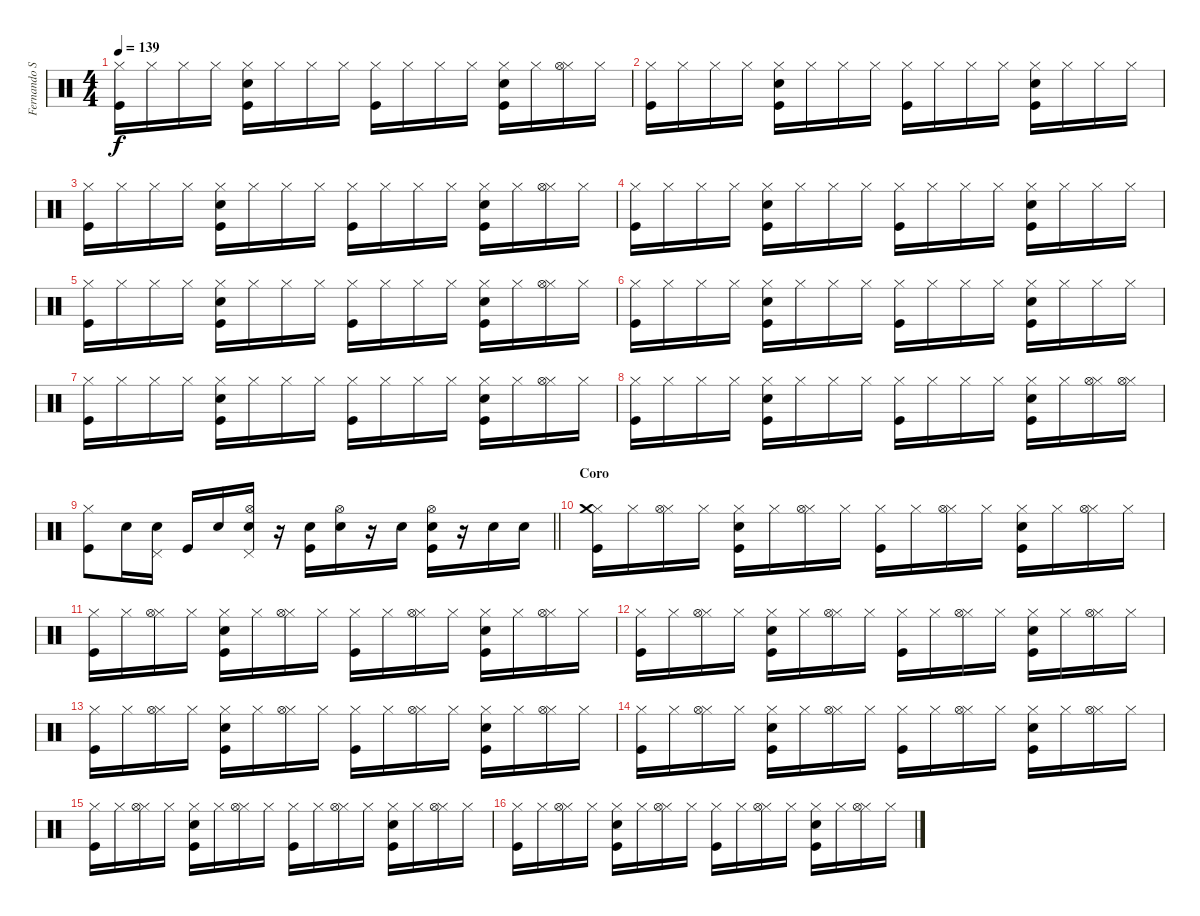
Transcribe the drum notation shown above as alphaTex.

\track ("Fernando Samalea (Bateria)" "Fernando S") {instrument percussion}
\staff {score}
\articulation defaults
\ts (4 4)
\tempo 139
\clef neutral
\ks c
("Kick (hit)" "Hi-Hat (closed)").16{dy f} "Hi-Hat (closed)".16 "Hi-Hat (closed)".16 "Hi-Hat (closed)".16 ("Kick (hit)" "Snare (hit) 2" "Hi-Hat (closed)").16 "Hi-Hat (closed)".16 "Hi-Hat (closed)".16 "Hi-Hat (closed)".16 ("Kick (hit)" "Hi-Hat (closed)").16 "Hi-Hat (closed)".16 "Hi-Hat (closed)".16 "Hi-Hat (closed)".16 ("Kick (hit)" "Snare (hit) 2" "Hi-Hat (closed)").16 "Hi-Hat (closed)".16 ("Hi-Hat (closed)" "Hi-Hat (open)").16 "Hi-Hat (closed)".16 |
("Kick (hit)" "Hi-Hat (closed)").16 "Hi-Hat (closed)".16 "Hi-Hat (closed)".16 "Hi-Hat (closed)".16 ("Kick (hit)" "Snare (hit) 2" "Hi-Hat (closed)").16 "Hi-Hat (closed)".16 "Hi-Hat (closed)".16 "Hi-Hat (closed)".16 ("Kick (hit)" "Hi-Hat (closed)").16 "Hi-Hat (closed)".16 "Hi-Hat (closed)".16 "Hi-Hat (closed)".16 ("Kick (hit)" "Snare (hit) 2" "Hi-Hat (closed)").16 "Hi-Hat (closed)".16 "Hi-Hat (closed)".16 "Hi-Hat (closed)".16 |
("Kick (hit)" "Hi-Hat (closed)").16 "Hi-Hat (closed)".16 "Hi-Hat (closed)".16 "Hi-Hat (closed)".16 ("Kick (hit)" "Snare (hit) 2" "Hi-Hat (closed)").16 "Hi-Hat (closed)".16 "Hi-Hat (closed)".16 "Hi-Hat (closed)".16 ("Kick (hit)" "Hi-Hat (closed)").16 "Hi-Hat (closed)".16 "Hi-Hat (closed)".16 "Hi-Hat (closed)".16 ("Kick (hit)" "Snare (hit) 2" "Hi-Hat (closed)").16 "Hi-Hat (closed)".16 ("Hi-Hat (closed)" "Hi-Hat (open)").16 "Hi-Hat (closed)".16 |
("Kick (hit)" "Hi-Hat (closed)").16 "Hi-Hat (closed)".16 "Hi-Hat (closed)".16 "Hi-Hat (closed)".16 ("Kick (hit)" "Snare (hit) 2" "Hi-Hat (closed)").16 "Hi-Hat (closed)".16 "Hi-Hat (closed)".16 "Hi-Hat (closed)".16 ("Kick (hit)" "Hi-Hat (closed)").16 "Hi-Hat (closed)".16 "Hi-Hat (closed)".16 "Hi-Hat (closed)".16 ("Kick (hit)" "Snare (hit) 2" "Hi-Hat (closed)").16 "Hi-Hat (closed)".16 "Hi-Hat (closed)".16 "Hi-Hat (closed)".16 |
("Kick (hit)" "Hi-Hat (closed)").16 "Hi-Hat (closed)".16 "Hi-Hat (closed)".16 "Hi-Hat (closed)".16 ("Kick (hit)" "Snare (hit) 2" "Hi-Hat (closed)").16 "Hi-Hat (closed)".16 "Hi-Hat (closed)".16 "Hi-Hat (closed)".16 ("Kick (hit)" "Hi-Hat (closed)").16 "Hi-Hat (closed)".16 "Hi-Hat (closed)".16 "Hi-Hat (closed)".16 ("Kick (hit)" "Snare (hit) 2" "Hi-Hat (closed)").16 "Hi-Hat (closed)".16 ("Hi-Hat (closed)" "Hi-Hat (open)").16 "Hi-Hat (closed)".16 |
("Kick (hit)" "Hi-Hat (closed)").16 "Hi-Hat (closed)".16 "Hi-Hat (closed)".16 "Hi-Hat (closed)".16 ("Kick (hit)" "Snare (hit) 2" "Hi-Hat (closed)").16 "Hi-Hat (closed)".16 "Hi-Hat (closed)".16 "Hi-Hat (closed)".16 ("Kick (hit)" "Hi-Hat (closed)").16 "Hi-Hat (closed)".16 "Hi-Hat (closed)".16 "Hi-Hat (closed)".16 ("Kick (hit)" "Snare (hit) 2" "Hi-Hat (closed)").16 "Hi-Hat (closed)".16 "Hi-Hat (closed)".16 "Hi-Hat (closed)".16 |
("Kick (hit)" "Hi-Hat (closed)").16 "Hi-Hat (closed)".16 "Hi-Hat (closed)".16 "Hi-Hat (closed)".16 ("Kick (hit)" "Snare (hit) 2" "Hi-Hat (closed)").16 "Hi-Hat (closed)".16 "Hi-Hat (closed)".16 "Hi-Hat (closed)".16 ("Kick (hit)" "Hi-Hat (closed)").16 "Hi-Hat (closed)".16 "Hi-Hat (closed)".16 "Hi-Hat (closed)".16 ("Kick (hit)" "Snare (hit) 2" "Hi-Hat (closed)").16 "Hi-Hat (closed)".16 ("Hi-Hat (closed)" "Hi-Hat (open)").16 "Hi-Hat (closed)".16 |
("Kick (hit)" "Hi-Hat (closed)").16 "Hi-Hat (closed)".16 "Hi-Hat (closed)".16 "Hi-Hat (closed)".16 ("Kick (hit)" "Snare (hit) 2" "Hi-Hat (closed)").16 "Hi-Hat (closed)".16 "Hi-Hat (closed)".16 "Hi-Hat (closed)".16 ("Kick (hit)" "Hi-Hat (closed)").16 "Hi-Hat (closed)".16 "Hi-Hat (closed)".16 "Hi-Hat (closed)".16 ("Kick (hit)" "Snare (hit) 2" "Hi-Hat (closed)").16 "Hi-Hat (closed)".16 ("Hi-Hat (closed)" "Hi-Hat (open)").16 ("Hi-Hat (closed)" "Hi-Hat (open)").16 |
\barLineRight lightlight
("Kick (hit)" "Hi-Hat (closed)").8 "Snare (hit) 2".16 ("Snare (hit) 2" "Pedal Hi-Hat (hit)").16 "Kick (hit)".16 "Snare (hit) 2".16 ("Snare (hit) 2" "Pedal Hi-Hat (hit)" "Hi-Hat (open)").16 r.16 ("Kick (hit)" "Snare (hit) 2").16 ("Snare (hit) 2" "Hi-Hat (open)").16 r.16 "Snare (hit) 2".16 ("Kick (hit)" "Snare (hit) 2" "Hi-Hat (open)").16 r.16 "Snare (hit) 2".16 "Snare (hit) 2".16 |
\section ("" "Coro")
("Kick (hit)" "Hi-Hat (closed)" "Crash medium (hit)").16 "Hi-Hat (closed)".16 ("Hi-Hat (closed)" "Hi-Hat (open)").16 "Hi-Hat (closed)".16 ("Kick (hit)" "Snare (hit) 2" "Hi-Hat (closed)").16 "Hi-Hat (closed)".16 ("Hi-Hat (closed)" "Hi-Hat (open)").16 "Hi-Hat (closed)".16 ("Kick (hit)" "Hi-Hat (closed)").16 "Hi-Hat (closed)".16 ("Hi-Hat (closed)" "Hi-Hat (open)").16 "Hi-Hat (closed)".16 ("Kick (hit)" "Snare (hit) 2" "Hi-Hat (closed)").16 "Hi-Hat (closed)".16 ("Hi-Hat (closed)" "Hi-Hat (open)").16 "Hi-Hat (closed)".16 |
("Kick (hit)" "Hi-Hat (closed)").16 "Hi-Hat (closed)".16 ("Hi-Hat (closed)" "Hi-Hat (open)").16 "Hi-Hat (closed)".16 ("Kick (hit)" "Snare (hit) 2" "Hi-Hat (closed)").16 "Hi-Hat (closed)".16 ("Hi-Hat (closed)" "Hi-Hat (open)").16 "Hi-Hat (closed)".16 ("Kick (hit)" "Hi-Hat (closed)").16 "Hi-Hat (closed)".16 ("Hi-Hat (closed)" "Hi-Hat (open)").16 "Hi-Hat (closed)".16 ("Kick (hit)" "Snare (hit) 2" "Hi-Hat (closed)").16 "Hi-Hat (closed)".16 ("Hi-Hat (closed)" "Hi-Hat (open)").16 "Hi-Hat (closed)".16 |
("Kick (hit)" "Hi-Hat (closed)").16 "Hi-Hat (closed)".16 ("Hi-Hat (closed)" "Hi-Hat (open)").16 "Hi-Hat (closed)".16 ("Kick (hit)" "Snare (hit) 2" "Hi-Hat (closed)").16 "Hi-Hat (closed)".16 ("Hi-Hat (closed)" "Hi-Hat (open)").16 "Hi-Hat (closed)".16 ("Kick (hit)" "Hi-Hat (closed)").16 "Hi-Hat (closed)".16 ("Hi-Hat (closed)" "Hi-Hat (open)").16 "Hi-Hat (closed)".16 ("Kick (hit)" "Snare (hit) 2" "Hi-Hat (closed)").16 "Hi-Hat (closed)".16 ("Hi-Hat (closed)" "Hi-Hat (open)").16 "Hi-Hat (closed)".16 |
("Kick (hit)" "Hi-Hat (closed)").16 "Hi-Hat (closed)".16 ("Hi-Hat (closed)" "Hi-Hat (open)").16 "Hi-Hat (closed)".16 ("Kick (hit)" "Snare (hit) 2" "Hi-Hat (closed)").16 "Hi-Hat (closed)".16 ("Hi-Hat (closed)" "Hi-Hat (open)").16 "Hi-Hat (closed)".16 ("Kick (hit)" "Hi-Hat (closed)").16 "Hi-Hat (closed)".16 ("Hi-Hat (closed)" "Hi-Hat (open)").16 "Hi-Hat (closed)".16 ("Kick (hit)" "Snare (hit) 2" "Hi-Hat (closed)").16 "Hi-Hat (closed)".16 ("Hi-Hat (closed)" "Hi-Hat (open)").16 "Hi-Hat (closed)".16 |
("Kick (hit)" "Hi-Hat (closed)").16 "Hi-Hat (closed)".16 ("Hi-Hat (closed)" "Hi-Hat (open)").16 "Hi-Hat (closed)".16 ("Kick (hit)" "Snare (hit) 2" "Hi-Hat (closed)").16 "Hi-Hat (closed)".16 ("Hi-Hat (closed)" "Hi-Hat (open)").16 "Hi-Hat (closed)".16 ("Kick (hit)" "Hi-Hat (closed)").16 "Hi-Hat (closed)".16 ("Hi-Hat (closed)" "Hi-Hat (open)").16 "Hi-Hat (closed)".16 ("Kick (hit)" "Snare (hit) 2" "Hi-Hat (closed)").16 "Hi-Hat (closed)".16 ("Hi-Hat (closed)" "Hi-Hat (open)").16 "Hi-Hat (closed)".16 |
("Kick (hit)" "Hi-Hat (closed)").16 "Hi-Hat (closed)".16 ("Hi-Hat (closed)" "Hi-Hat (open)").16 "Hi-Hat (closed)".16 ("Kick (hit)" "Snare (hit) 2" "Hi-Hat (closed)").16 "Hi-Hat (closed)".16 ("Hi-Hat (closed)" "Hi-Hat (open)").16 "Hi-Hat (closed)".16 ("Kick (hit)" "Hi-Hat (closed)").16 "Hi-Hat (closed)".16 ("Hi-Hat (closed)" "Hi-Hat (open)").16 "Hi-Hat (closed)".16 ("Kick (hit)" "Snare (hit) 2" "Hi-Hat (closed)").16 "Hi-Hat (closed)".16 ("Hi-Hat (closed)" "Hi-Hat (open)").16 "Hi-Hat (closed)".16 |
("Kick (hit)" "Hi-Hat (closed)").16 "Hi-Hat (closed)".16 ("Hi-Hat (closed)" "Hi-Hat (open)").16 "Hi-Hat (closed)".16 ("Kick (hit)" "Snare (hit) 2" "Hi-Hat (closed)").16 "Hi-Hat (closed)".16 ("Hi-Hat (closed)" "Hi-Hat (open)").16 "Hi-Hat (closed)".16 ("Kick (hit)" "Hi-Hat (closed)").16 "Hi-Hat (closed)".16 ("Hi-Hat (closed)" "Hi-Hat (open)").16 "Hi-Hat (closed)".16 ("Kick (hit)" "Snare (hit) 2" "Hi-Hat (closed)").16 "Hi-Hat (closed)".16 ("Hi-Hat (closed)" "Hi-Hat (open)").16 "Hi-Hat (closed)".16
